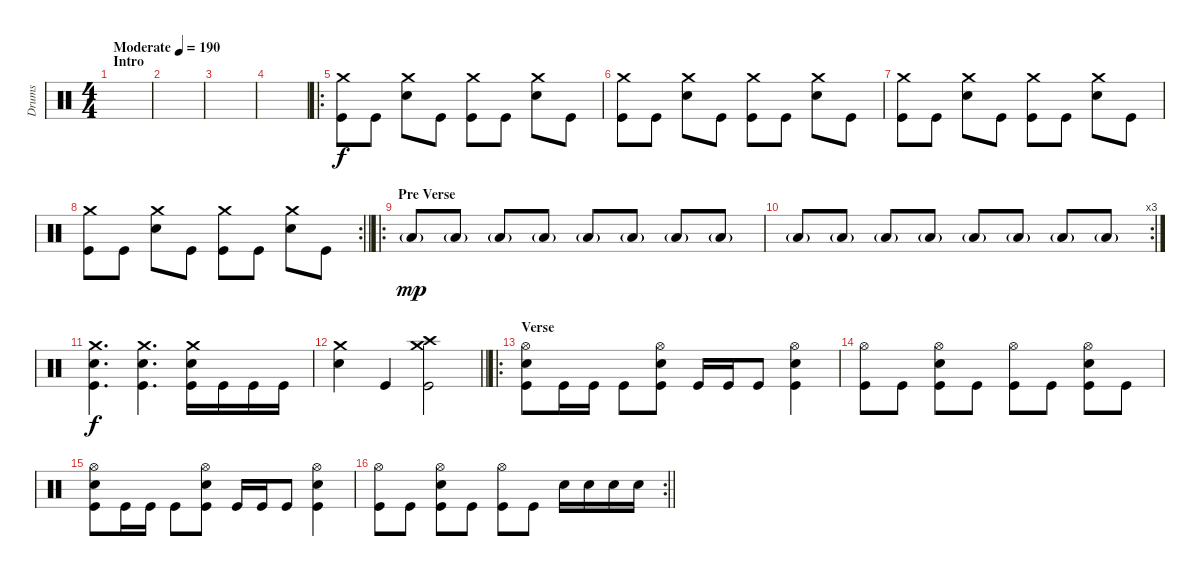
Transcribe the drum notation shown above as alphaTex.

\track ("Drums" "Drums") {instrument percussion}
\staff {score}
\articulation defaults
\ts (4 4)
\section ("" "Intro")
\tempo (190 "Moderate")
\clef neutral
\ks c
|
|
|
|
\ro
("Crash medium (hit)" "Kick (hit)").8 "Kick (hit)".8 ("Crash medium (hit)" "Snare (hit) 2").8 "Kick (hit)".8 ("Crash medium (hit)" "Kick (hit)").8 "Kick (hit)".8 ("Crash medium (hit)" "Snare (hit) 2").8 "Kick (hit)".8 |
("Crash medium (hit)" "Kick (hit)").8 "Kick (hit)".8 ("Crash medium (hit)" "Snare (hit) 2").8 "Kick (hit)".8 ("Crash medium (hit)" "Kick (hit)").8 "Kick (hit)".8 ("Crash medium (hit)" "Snare (hit) 2").8 "Kick (hit)".8 |
("Crash medium (hit)" "Kick (hit)").8 "Kick (hit)".8 ("Crash medium (hit)" "Snare (hit) 2").8 "Kick (hit)".8 ("Crash medium (hit)" "Kick (hit)").8 "Kick (hit)".8 ("Crash medium (hit)" "Snare (hit) 2").8 "Kick (hit)".8 |
\rc 2
\barLineRight lightlight
("Crash medium (hit)" "Kick (hit)").8 "Kick (hit)".8 ("Crash medium (hit)" "Snare (hit) 2").8 "Kick (hit)".8 ("Crash medium (hit)" "Kick (hit)").8 "Kick (hit)".8 ("Crash medium (hit)" "Snare (hit) 2").8 "Kick (hit)".8 |
\ro
\section ("" "Pre Verse")
"Low Floor Tom (hit)"{g}.8{dy mp} "Low Floor Tom (hit)"{g}.8 "Low Floor Tom (hit)"{g}.8 "Low Floor Tom (hit)"{g}.8 "Low Floor Tom (hit)"{g}.8 "Low Floor Tom (hit)"{g}.8 "Low Floor Tom (hit)"{g}.8 "Low Floor Tom (hit)"{g}.8 |
\rc 3 "Low Floor Tom (hit)"{g}.8 "Low Floor Tom (hit)"{g}.8 "Low Floor Tom (hit)"{g}.8 "Low Floor Tom (hit)"{g}.8 "Low Floor Tom (hit)"{g}.8 "Low Floor Tom (hit)"{g}.8 "Low Floor Tom (hit)"{g}.8 "Low Floor Tom (hit)"{g}.8
|
("Crash medium (hit)" "Snare (hit) 2" "Kick (hit)").4{d dy f} ("Crash medium (hit)" "Snare (hit) 2" "Kick (hit)").4{d} ("Crash medium (hit)" "Snare (hit) 2" "Kick (hit)").16 "Kick (hit)".16 "Kick (hit)".16 "Kick (hit)".16 |
\barLineRight lightlight
("Crash medium (hit)" "Snare (hit) 2").4 "Kick (hit)".4 ("Crash high (hit)" "Crash medium (hit)" "Kick (hit)").2 |
\ro
\section ("" "Verse")
("Hi-Hat (open)" "Snare (hit) 2" "Kick (hit)").8 "Kick (hit)".16 "Kick (hit)".16 "Kick (hit)".8 ("Hi-Hat (open)" "Snare (hit) 2" "Kick (hit)").8 "Kick (hit)".16 "Kick (hit)".16 "Kick (hit)".8 ("Hi-Hat (open)" "Snare (hit) 2" "Kick (hit)").4 |
("Hi-Hat (open)" "Kick (hit)").8 "Kick (hit)".8 ("Hi-Hat (open)" "Snare (hit) 2" "Kick (hit)").8 "Kick (hit)".8 ("Hi-Hat (open)" "Kick (hit)").8 "Kick (hit)".8 ("Hi-Hat (open)" "Snare (hit) 2" "Kick (hit)").8 "Kick (hit)".8 |
("Hi-Hat (open)" "Snare (hit) 2" "Kick (hit)").8 "Kick (hit)".16 "Kick (hit)".16 "Kick (hit)".8 ("Hi-Hat (open)" "Snare (hit) 2" "Kick (hit)").8 "Kick (hit)".16 "Kick (hit)".16 "Kick (hit)".8 ("Hi-Hat (open)" "Snare (hit) 2" "Kick (hit)").4 |
\rc 2
\barLineRight lightlight
("Hi-Hat (open)" "Kick (hit)").8 "Kick (hit)".8 ("Hi-Hat (open)" "Snare (hit) 2" "Kick (hit)").8 "Kick (hit)".8 ("Hi-Hat (open)" "Kick (hit)").8 "Kick (hit)".8 "Snare (hit) 2".16 "Snare (hit) 2".16 "Snare (hit) 2".16 "Snare (hit) 2".16
